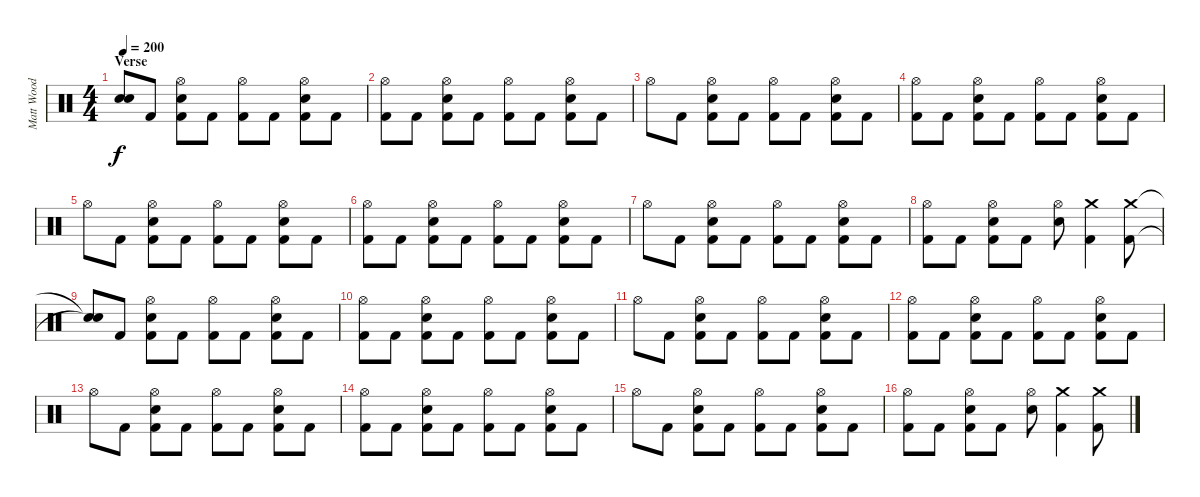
\track ("Matt Wood" "Matt Wood") {instrument percussion}
\staff {score}
\articulation defaults
\ts (4 4)
\section ("" "Verse")
\tempo 200
\clef neutral
\ks c
("Snare (hit)"{t} "Snare (hit)"{t}).8{dy f} "Kick (hit) 2".8 ("Hi-Hat (open)" "Snare (hit) 2" "Kick (hit) 2").8 "Kick (hit) 2".8 ("Hi-Hat (open)" "Kick (hit) 2").8 "Kick (hit) 2".8 ("Hi-Hat (open)" "Snare (hit) 2" "Kick (hit) 2").8 "Kick (hit) 2".8 |
("Hi-Hat (open)" "Kick (hit) 2").8 "Kick (hit) 2".8 ("Hi-Hat (open)" "Snare (hit) 2" "Kick (hit) 2").8 "Kick (hit) 2".8 ("Hi-Hat (open)" "Kick (hit) 2").8 "Kick (hit) 2".8 ("Hi-Hat (open)" "Snare (hit) 2" "Kick (hit) 2").8 "Kick (hit) 2".8 |
"Hi-Hat (open)".8 "Kick (hit) 2".8 ("Hi-Hat (open)" "Snare (hit) 2" "Kick (hit) 2").8 "Kick (hit) 2".8 ("Hi-Hat (open)" "Kick (hit) 2").8 "Kick (hit) 2".8 ("Hi-Hat (open)" "Snare (hit) 2" "Kick (hit) 2").8 "Kick (hit) 2".8 |
("Hi-Hat (open)" "Kick (hit) 2").8 "Kick (hit) 2".8 ("Hi-Hat (open)" "Snare (hit) 2" "Kick (hit) 2").8 "Kick (hit) 2".8 ("Hi-Hat (open)" "Kick (hit) 2").8 "Kick (hit) 2".8 ("Hi-Hat (open)" "Snare (hit) 2" "Kick (hit) 2").8 "Kick (hit) 2".8 |
"Hi-Hat (open)".8 "Kick (hit) 2".8 ("Hi-Hat (open)" "Snare (hit) 2" "Kick (hit) 2").8 "Kick (hit) 2".8 ("Hi-Hat (open)" "Kick (hit) 2").8 "Kick (hit) 2".8 ("Hi-Hat (open)" "Snare (hit) 2" "Kick (hit) 2").8 "Kick (hit) 2".8 |
("Hi-Hat (open)" "Kick (hit) 2").8 "Kick (hit) 2".8 ("Hi-Hat (open)" "Snare (hit) 2" "Kick (hit) 2").8 "Kick (hit) 2".8 ("Hi-Hat (open)" "Kick (hit) 2").8 "Kick (hit) 2".8 ("Hi-Hat (open)" "Snare (hit) 2" "Kick (hit) 2").8 "Kick (hit) 2".8 |
"Hi-Hat (open)".8 "Kick (hit) 2".8 ("Hi-Hat (open)" "Snare (hit) 2" "Kick (hit) 2").8 "Kick (hit) 2".8 ("Hi-Hat (open)" "Kick (hit) 2").8 "Kick (hit) 2".8 ("Hi-Hat (open)" "Snare (hit) 2" "Kick (hit) 2").8 "Kick (hit) 2".8 |
("Hi-Hat (open)" "Kick (hit) 2").8 "Kick (hit) 2".8 ("Hi-Hat (open)" "Snare (hit) 2" "Kick (hit) 2").8 "Kick (hit) 2".8 ("Hi-Hat (open)" "Snare (hit) 2").8 ("Crash medium (hit)" "Kick (hit) 2").4 ("Crash medium (hit)" "Kick (hit) 2").8 |
("Snare (hit)"{t} "Snare (hit)"{t}).8 "Kick (hit) 2".8 ("Hi-Hat (open)" "Snare (hit) 2" "Kick (hit) 2").8 "Kick (hit) 2".8 ("Hi-Hat (open)" "Kick (hit) 2").8 "Kick (hit) 2".8 ("Hi-Hat (open)" "Snare (hit) 2" "Kick (hit) 2").8 "Kick (hit) 2".8 |
("Hi-Hat (open)" "Kick (hit) 2").8 "Kick (hit) 2".8 ("Hi-Hat (open)" "Snare (hit) 2" "Kick (hit) 2").8 "Kick (hit) 2".8 ("Hi-Hat (open)" "Kick (hit) 2").8 "Kick (hit) 2".8 ("Hi-Hat (open)" "Snare (hit) 2" "Kick (hit) 2").8 "Kick (hit) 2".8 |
"Hi-Hat (open)".8 "Kick (hit) 2".8 ("Hi-Hat (open)" "Snare (hit) 2" "Kick (hit) 2").8 "Kick (hit) 2".8 ("Hi-Hat (open)" "Kick (hit) 2").8 "Kick (hit) 2".8 ("Hi-Hat (open)" "Snare (hit) 2" "Kick (hit) 2").8 "Kick (hit) 2".8 |
("Hi-Hat (open)" "Kick (hit) 2").8 "Kick (hit) 2".8 ("Hi-Hat (open)" "Snare (hit) 2" "Kick (hit) 2").8 "Kick (hit) 2".8 ("Hi-Hat (open)" "Kick (hit) 2").8 "Kick (hit) 2".8 ("Hi-Hat (open)" "Snare (hit) 2" "Kick (hit) 2").8 "Kick (hit) 2".8 |
"Hi-Hat (open)".8 "Kick (hit) 2".8 ("Hi-Hat (open)" "Snare (hit) 2" "Kick (hit) 2").8 "Kick (hit) 2".8 ("Hi-Hat (open)" "Kick (hit) 2").8 "Kick (hit) 2".8 ("Hi-Hat (open)" "Snare (hit) 2" "Kick (hit) 2").8 "Kick (hit) 2".8 |
("Hi-Hat (open)" "Kick (hit) 2").8 "Kick (hit) 2".8 ("Hi-Hat (open)" "Snare (hit) 2" "Kick (hit) 2").8 "Kick (hit) 2".8 ("Hi-Hat (open)" "Kick (hit) 2").8 "Kick (hit) 2".8 ("Hi-Hat (open)" "Snare (hit) 2" "Kick (hit) 2").8 "Kick (hit) 2".8 |
"Hi-Hat (open)".8 "Kick (hit) 2".8 ("Hi-Hat (open)" "Snare (hit) 2" "Kick (hit) 2").8 "Kick (hit) 2".8 ("Hi-Hat (open)" "Kick (hit) 2").8 "Kick (hit) 2".8 ("Hi-Hat (open)" "Snare (hit) 2" "Kick (hit) 2").8 "Kick (hit) 2".8 |
("Hi-Hat (open)" "Kick (hit) 2").8 "Kick (hit) 2".8 ("Hi-Hat (open)" "Snare (hit) 2" "Kick (hit) 2").8 "Kick (hit) 2".8 ("Hi-Hat (open)" "Snare (hit) 2").8 ("Crash medium (hit)" "Kick (hit) 2").4 ("Crash medium (hit)" "Kick (hit) 2").8
